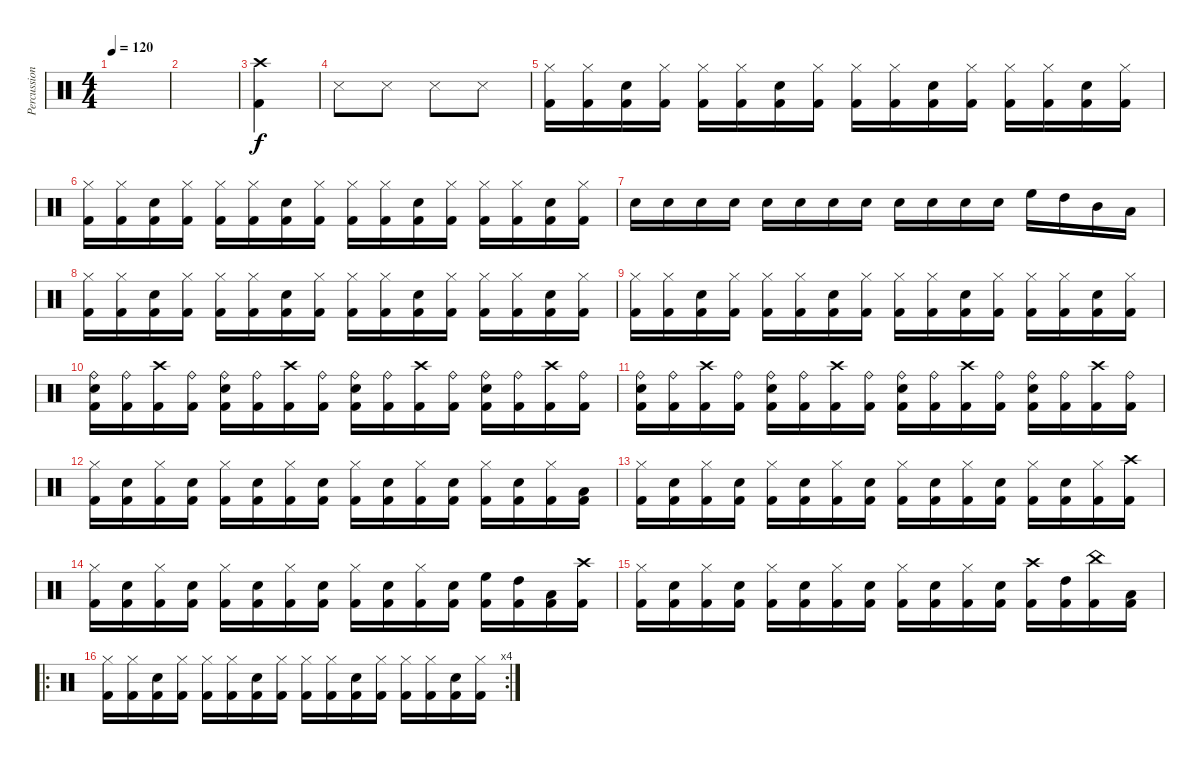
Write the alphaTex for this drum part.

\track ("Percussion" "Percussion") {instrument percussion}
\staff {score}
\articulation defaults
\ts (4 4)
\tempo 120
\clef neutral
\ks c
|
|
("Kick (hit) 2" "Crash high (hit)").4 |
"Snare (side stick) 3".8 "Snare (side stick) 3".8 "Snare (side stick) 3".8 "Snare (side stick) 3".8 |
("Kick (hit) 2" "Hi-Hat (closed)").16 ("Kick (hit) 2" "Hi-Hat (closed)").16 ("Kick (hit) 2" "Electric Snare (hit)").16 ("Kick (hit) 2" "Hi-Hat (closed)").16 ("Kick (hit) 2" "Hi-Hat (closed)").16 ("Kick (hit) 2" "Hi-Hat (closed)").16 ("Kick (hit) 2" "Electric Snare (hit)").16 ("Kick (hit) 2" "Hi-Hat (closed)").16 ("Kick (hit) 2" "Hi-Hat (closed)").16 ("Kick (hit) 2" "Hi-Hat (closed)").16 ("Kick (hit) 2" "Electric Snare (hit)").16 ("Kick (hit) 2" "Hi-Hat (closed)").16 ("Kick (hit) 2" "Hi-Hat (closed)").16 ("Kick (hit) 2" "Hi-Hat (closed)").16 ("Kick (hit) 2" "Electric Snare (hit)").16 ("Kick (hit) 2" "Hi-Hat (closed)").16 |
("Kick (hit) 2" "Hi-Hat (closed)").16 ("Kick (hit) 2" "Hi-Hat (closed)").16 ("Kick (hit) 2" "Electric Snare (hit)").16 ("Kick (hit) 2" "Hi-Hat (closed)").16 ("Kick (hit) 2" "Hi-Hat (closed)").16 ("Kick (hit) 2" "Hi-Hat (closed)").16 ("Kick (hit) 2" "Electric Snare (hit)").16 ("Kick (hit) 2" "Hi-Hat (closed)").16 ("Kick (hit) 2" "Hi-Hat (closed)").16 ("Kick (hit) 2" "Hi-Hat (closed)").16 ("Kick (hit) 2" "Electric Snare (hit)").16 ("Kick (hit) 2" "Hi-Hat (closed)").16 ("Kick (hit) 2" "Hi-Hat (closed)").16 ("Kick (hit) 2" "Hi-Hat (closed)").16 ("Kick (hit) 2" "Electric Snare (hit)").16 ("Kick (hit) 2" "Hi-Hat (closed)").16 |
"Electric Snare (hit)".16 "Electric Snare (hit)".16 "Electric Snare (hit)".16 "Electric Snare (hit)".16 "Electric Snare (hit)".16 "Electric Snare (hit)".16 "Electric Snare (hit)".16 "Electric Snare (hit)".16 "Electric Snare (hit)".16 "Electric Snare (hit)".16 "Electric Snare (hit)".16 "Electric Snare (hit)".16 "High Floor Tom (hit)".16 "High Tom (hit)".16 "Mid Tom (hit)".16 "Low Tom (hit)".16 |
("Kick (hit) 2" "Hi-Hat (closed)").16 ("Kick (hit) 2" "Hi-Hat (closed)").16 ("Kick (hit) 2" "Electric Snare (hit)").16 ("Kick (hit) 2" "Hi-Hat (closed)").16 ("Kick (hit) 2" "Hi-Hat (closed)").16 ("Kick (hit) 2" "Hi-Hat (closed)").16 ("Kick (hit) 2" "Electric Snare (hit)").16 ("Kick (hit) 2" "Hi-Hat (closed)").16 ("Kick (hit) 2" "Hi-Hat (closed)").16 ("Kick (hit) 2" "Hi-Hat (closed)").16 ("Kick (hit) 2" "Electric Snare (hit)").16 ("Kick (hit) 2" "Hi-Hat (closed)").16 ("Kick (hit) 2" "Hi-Hat (closed)").16 ("Kick (hit) 2" "Hi-Hat (closed)").16 ("Kick (hit) 2" "Electric Snare (hit)").16 ("Kick (hit) 2" "Hi-Hat (closed)").16 |
("Kick (hit) 2" "Hi-Hat (closed)").16 ("Kick (hit) 2" "Hi-Hat (closed)").16 ("Kick (hit) 2" "Electric Snare (hit)").16 ("Kick (hit) 2" "Hi-Hat (closed)").16 ("Kick (hit) 2" "Hi-Hat (closed)").16 ("Kick (hit) 2" "Hi-Hat (closed)").16 ("Kick (hit) 2" "Electric Snare (hit)").16 ("Kick (hit) 2" "Hi-Hat (closed)").16 ("Kick (hit) 2" "Hi-Hat (closed)").16 ("Kick (hit) 2" "Hi-Hat (closed)").16 ("Kick (hit) 2" "Electric Snare (hit)").16 ("Kick (hit) 2" "Hi-Hat (closed)").16 ("Kick (hit) 2" "Hi-Hat (closed)").16 ("Kick (hit) 2" "Hi-Hat (closed)").16 ("Kick (hit) 2" "Electric Snare (hit)").16 ("Kick (hit) 2" "Hi-Hat (closed)").16 |
("Kick (hit) 2" "Ride (bell)" "Electric Snare (hit)").16 ("Kick (hit) 2" "Ride (bell)").16 ("Kick (hit) 2" "Crash high (hit)").16 ("Kick (hit) 2" "Ride (bell)").16 ("Kick (hit) 2" "Ride (bell)" "Electric Snare (hit)").16 ("Kick (hit) 2" "Ride (bell)").16 ("Kick (hit) 2" "Crash high (hit)").16 ("Kick (hit) 2" "Ride (bell)").16 ("Kick (hit) 2" "Ride (bell)" "Electric Snare (hit)").16 ("Kick (hit) 2" "Ride (bell)").16 ("Kick (hit) 2" "Crash high (hit)").16 ("Kick (hit) 2" "Ride (bell)").16 ("Kick (hit) 2" "Ride (bell)" "Electric Snare (hit)").16 ("Kick (hit) 2" "Ride (bell)").16 ("Kick (hit) 2" "Crash high (hit)").16 ("Kick (hit) 2" "Ride (bell)").16 |
("Kick (hit) 2" "Ride (bell)" "Electric Snare (hit)").16 ("Kick (hit) 2" "Ride (bell)").16 ("Kick (hit) 2" "Crash high (hit)").16 ("Kick (hit) 2" "Ride (bell)").16 ("Kick (hit) 2" "Ride (bell)" "Electric Snare (hit)").16 ("Kick (hit) 2" "Ride (bell)").16 ("Kick (hit) 2" "Crash high (hit)").16 ("Kick (hit) 2" "Ride (bell)").16 ("Kick (hit) 2" "Ride (bell)" "Electric Snare (hit)").16 ("Kick (hit) 2" "Ride (bell)").16 ("Kick (hit) 2" "Crash high (hit)").16 ("Kick (hit) 2" "Ride (bell)").16 ("Kick (hit) 2" "Ride (bell)" "Electric Snare (hit)").16 ("Kick (hit) 2" "Ride (bell)").16 ("Kick (hit) 2" "Crash high (hit)").16 ("Kick (hit) 2" "Ride (bell)").16 |
("Kick (hit) 2" "Hi-Hat (closed)").16 ("Kick (hit) 2" "Electric Snare (hit)").16 ("Kick (hit) 2" "Hi-Hat (closed)").16 ("Kick (hit) 2" "Electric Snare (hit)").16 ("Kick (hit) 2" "Hi-Hat (closed)").16 ("Kick (hit) 2" "Electric Snare (hit)").16 ("Kick (hit) 2" "Hi-Hat (closed)").16 ("Kick (hit) 2" "Electric Snare (hit)").16 ("Kick (hit) 2" "Hi-Hat (closed)").16 ("Kick (hit) 2" "Electric Snare (hit)").16 ("Kick (hit) 2" "Hi-Hat (closed)").16 ("Kick (hit) 2" "Electric Snare (hit)").16 ("Kick (hit) 2" "Hi-Hat (closed)").16 ("Kick (hit) 2" "Electric Snare (hit)").16 ("Kick (hit) 2" "Hi-Hat (closed)").16 ("Kick (hit) 2" "Low Floor Tom (hit)").16 |
("Kick (hit) 2" "Hi-Hat (closed)").16 ("Kick (hit) 2" "Electric Snare (hit)").16 ("Kick (hit) 2" "Hi-Hat (closed)").16 ("Kick (hit) 2" "Electric Snare (hit)").16 ("Kick (hit) 2" "Hi-Hat (closed)").16 ("Kick (hit) 2" "Electric Snare (hit)").16 ("Kick (hit) 2" "Hi-Hat (closed)").16 ("Kick (hit) 2" "Electric Snare (hit)").16 ("Kick (hit) 2" "Hi-Hat (closed)").16 ("Kick (hit) 2" "Electric Snare (hit)").16 ("Kick (hit) 2" "Hi-Hat (closed)").16 ("Kick (hit) 2" "Electric Snare (hit)").16 ("Kick (hit) 2" "Hi-Hat (closed)").16 ("Kick (hit) 2" "Electric Snare (hit)").16 ("Kick (hit) 2" "Hi-Hat (closed)").16 ("Kick (hit) 2" "Crash high (hit)").16 |
("Kick (hit) 2" "Hi-Hat (closed)").16 ("Kick (hit) 2" "Electric Snare (hit)").16 ("Kick (hit) 2" "Hi-Hat (closed)").16 ("Kick (hit) 2" "Electric Snare (hit)").16 ("Kick (hit) 2" "Hi-Hat (closed)").16 ("Kick (hit) 2" "Electric Snare (hit)").16 ("Kick (hit) 2" "Hi-Hat (closed)").16 ("Kick (hit) 2" "Electric Snare (hit)").16 ("Kick (hit) 2" "Hi-Hat (closed)").16 ("Kick (hit) 2" "Electric Snare (hit)").16 ("Kick (hit) 2" "Hi-Hat (closed)").16 ("Kick (hit) 2" "Electric Snare (hit)").16 ("Kick (hit) 2" "High Floor Tom (hit)").16 ("Kick (hit) 2" "High Tom (hit)").16 ("Kick (hit) 2" "Low Tom (hit)").16 ("Kick (hit) 2" "Crash high (hit)").16 |
("Kick (hit) 2" "Hi-Hat (closed)").16 ("Kick (hit) 2" "Electric Snare (hit)").16 ("Kick (hit) 2" "Hi-Hat (closed)").16 ("Kick (hit) 2" "Electric Snare (hit)").16 ("Kick (hit) 2" "Hi-Hat (closed)").16 ("Kick (hit) 2" "Electric Snare (hit)").16 ("Kick (hit) 2" "Hi-Hat (closed)").16 ("Kick (hit) 2" "Electric Snare (hit)").16 ("Kick (hit) 2" "Hi-Hat (closed)").16 ("Kick (hit) 2" "Electric Snare (hit)").16 ("Kick (hit) 2" "Hi-Hat (closed)").16 ("Kick (hit) 2" "Electric Snare (hit)").16 ("Kick (hit) 2" "Crash high (hit)").16 ("Kick (hit) 2" "High Tom (hit)").16 ("Kick (hit) 2" "China (hit)").16 ("Kick (hit) 2" "Low Tom (hit)").16 |
\ro
\rc 4
("Kick (hit) 2" "Hi-Hat (closed)").16 ("Kick (hit) 2" "Hi-Hat (closed)").16 ("Kick (hit) 2" "Electric Snare (hit)").16 ("Kick (hit) 2" "Hi-Hat (closed)").16 ("Kick (hit) 2" "Hi-Hat (closed)").16 ("Kick (hit) 2" "Hi-Hat (closed)").16 ("Kick (hit) 2" "Electric Snare (hit)").16 ("Kick (hit) 2" "Hi-Hat (closed)").16 ("Kick (hit) 2" "Hi-Hat (closed)").16 ("Kick (hit) 2" "Hi-Hat (closed)").16 ("Kick (hit) 2" "Electric Snare (hit)").16 ("Kick (hit) 2" "Hi-Hat (closed)").16 ("Kick (hit) 2" "Hi-Hat (closed)").16 ("Kick (hit) 2" "Hi-Hat (closed)").16 ("Kick (hit) 2" "Electric Snare (hit)").16 ("Kick (hit) 2" "Hi-Hat (closed)").16
